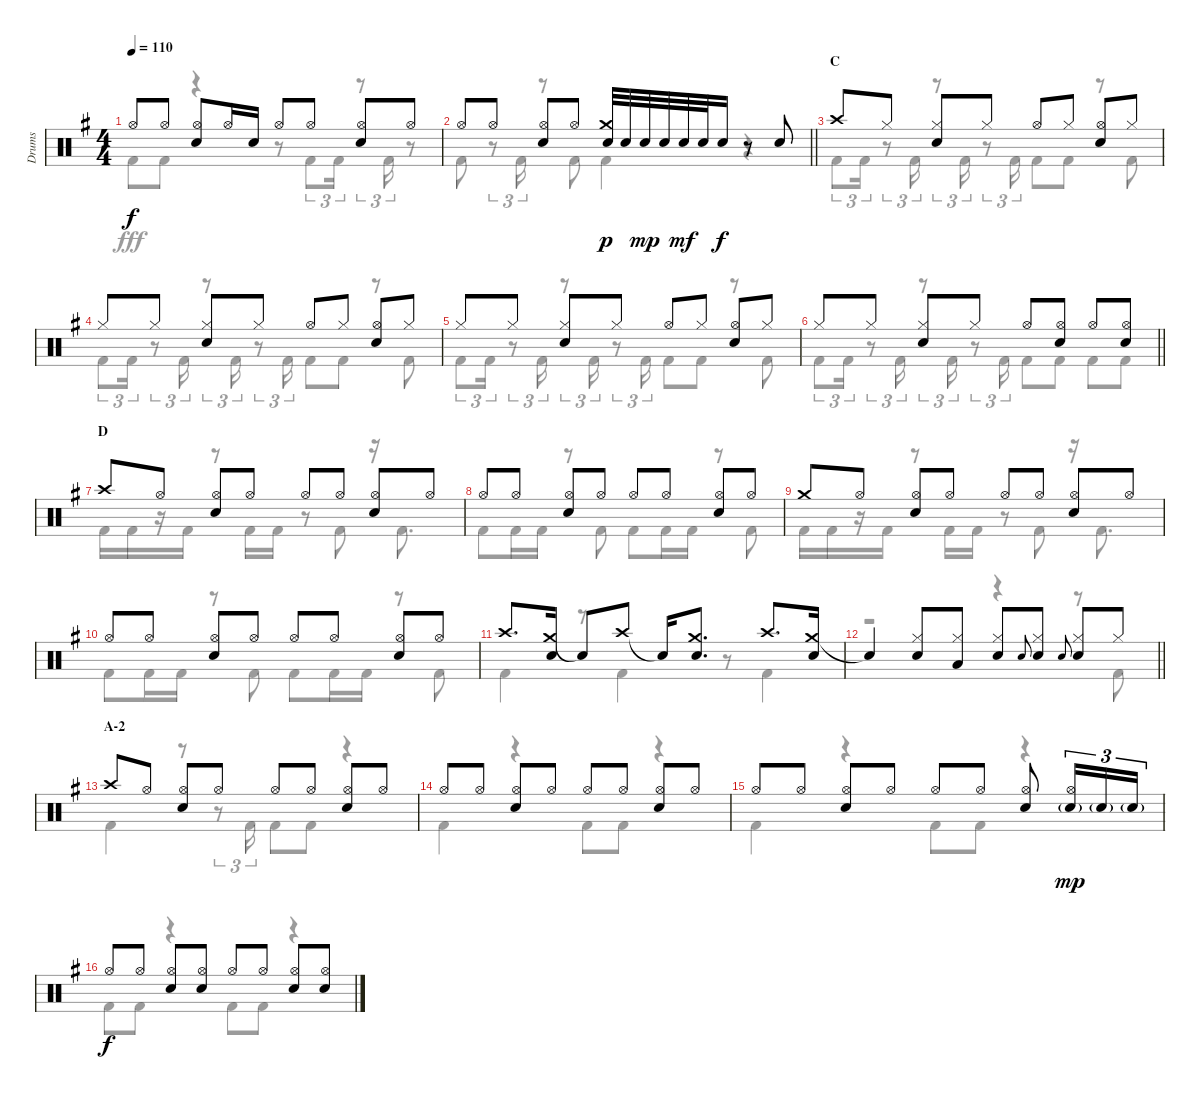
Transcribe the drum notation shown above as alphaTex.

\track ("Drums" "Drums") {instrument percussion}
\staff {score}
\articulation defaults
\voice
\ts (4 4)
\tempo 110
\clef neutral
\ks g "Hi-Hat (open)".8{dy f} "Hi-Hat (open)".8
("Hi-Hat (open)" "Snare (hit) 2").8 "Hi-Hat (open)".16 "Snare (hit) 2".16 "Hi-Hat (open)".8 "Hi-Hat (open)".8 ("Hi-Hat (open)" "Snare (hit) 2").8 "Hi-Hat (open)".8 |
\barLineRight lightlight "Hi-Hat (open)".8 "Hi-Hat (open)".8
("Hi-Hat (open)" "Snare (hit) 2").8 "Hi-Hat (open)".8 ("Crash medium (hit)" "Snare (hit) 2").32{dy p} "Snare (hit) 2".32 "Snare (hit) 2".32{dy mp} "Snare (hit) 2".32 "Snare (hit) 2".32{dy mf} "Snare (hit) 2".32 "Snare (hit) 2".16{dy f} r.8 "Snare (hit) 2".8 |
\section ("" "C")
"Crash high (hit)".8 "Hi-Hat (closed)".8 ("Hi-Hat (closed)" "Snare (hit) 2").8 "Hi-Hat (closed)".8 "Hi-Hat (open)".8 "Hi-Hat (closed)".8 ("Hi-Hat (open)" "Snare (hit) 2").8 "Hi-Hat (closed)".8 |
"Hi-Hat (closed)".8 "Hi-Hat (closed)".8 ("Hi-Hat (closed)" "Snare (hit) 2").8 "Hi-Hat (closed)".8 "Hi-Hat (open)".8 "Hi-Hat (closed)".8 ("Hi-Hat (open)" "Snare (hit) 2").8 "Hi-Hat (closed)".8 |
"Hi-Hat (closed)".8 "Hi-Hat (closed)".8 ("Hi-Hat (closed)" "Snare (hit) 2").8 "Hi-Hat (closed)".8 "Hi-Hat (open)".8 "Hi-Hat (closed)".8 ("Hi-Hat (open)" "Snare (hit) 2").8 "Hi-Hat (closed)".8 |
\barLineRight lightlight "Hi-Hat (closed)".8 "Hi-Hat (closed)".8
("Hi-Hat (closed)" "Snare (hit) 2").8 "Hi-Hat (closed)".8 "Hi-Hat (open)".8 ("Hi-Hat (open)" "Snare (hit) 2").8 "Hi-Hat (open)".8 ("Hi-Hat (open)" "Snare (hit) 2").8 |
\section ("" "D")
"Crash high (hit)".8 "Hi-Hat (open)".8 ("Hi-Hat (open)" "Snare (hit) 2").8 "Hi-Hat (open)".8 "Hi-Hat (open)".8 "Hi-Hat (open)".8 ("Hi-Hat (open)" "Snare (hit) 2").8 "Hi-Hat (open)".8 |
"Hi-Hat (open)".8 "Hi-Hat (open)".8 ("Hi-Hat (open)" "Snare (hit) 2").8 "Hi-Hat (open)".8 "Hi-Hat (open)".8 "Hi-Hat (open)".8 ("Hi-Hat (open)" "Snare (hit) 2").8 "Hi-Hat (open)".8 |
"Crash medium (hit)".8 "Hi-Hat (open)".8 ("Hi-Hat (open)" "Snare (hit) 2").8 "Hi-Hat (open)".8 "Hi-Hat (open)".8 "Hi-Hat (open)".8 ("Hi-Hat (open)" "Snare (hit) 2").8 "Hi-Hat (open)".8 |
"Hi-Hat (open)".8 "Hi-Hat (open)".8 ("Hi-Hat (open)" "Snare (hit) 2").8 "Hi-Hat (open)".8 "Hi-Hat (open)".8 "Hi-Hat (open)".8 ("Hi-Hat (open)" "Snare (hit) 2").8 "Hi-Hat (open)".8 |
"Crash high (hit)".8{d} ("Crash medium (hit)" "Snare (hit) 2").16 "Snare (hit)"{t}.8 "Crash high (hit)".8 "Snare (hit)"{t}.16 ("Crash medium (hit)" "Snare (hit) 2").8{d} "Crash high (hit)".8{d} ("Crash medium (hit)" "Snare (hit) 2").16 |
\barLineRight lightlight "Snare (hit)"{t}.4
("Hi-Hat (closed)" "Snare (hit) 2").8 ("Hi-Hat (closed)" "Low Tom (hit)").8 ("Hi-Hat (closed)" "Snare (hit) 2").8 "Snare (hit) 2".8{gr onbeat} ("Hi-Hat (closed)" "Snare (hit) 2").8 "Snare (hit) 2".8{gr onbeat} ("Hi-Hat (closed)" "Snare (hit) 2").8 "Hi-Hat (closed)".8 |
\section ("" "A-2")
"Crash high (hit)".8 "Hi-Hat (open)".8 ("Hi-Hat (open)" "Snare (hit) 2").8 "Hi-Hat (open)".8 "Hi-Hat (open)".8 "Hi-Hat (open)".8 ("Hi-Hat (open)" "Snare (hit) 2").8 "Hi-Hat (open)".8 |
"Hi-Hat (open)".8 "Hi-Hat (open)".8 ("Hi-Hat (open)" "Snare (hit) 2").8 "Hi-Hat (open)".8 "Hi-Hat (open)".8 "Hi-Hat (open)".8 ("Hi-Hat (open)" "Snare (hit) 2").8 "Hi-Hat (open)".8 |
"Hi-Hat (open)".8 "Hi-Hat (open)".8 ("Hi-Hat (open)" "Snare (hit) 2").8 "Hi-Hat (open)".8 "Hi-Hat (open)".8 "Hi-Hat (open)".8 ("Hi-Hat (open)" "Snare (hit) 2").8 ("Hi-Hat (open)" "Snare (hit) 2"{g}).16{tu (3 2) dy mp} "Snare (hit) 2"{g}.16{tu (3 2)} "Snare (hit) 2"{g}.16{tu (3 2)} |
"Hi-Hat (open)".8{dy f} "Hi-Hat (open)".8 ("Hi-Hat (open)" "Snare (hit) 2").8 ("Hi-Hat (open)" "Snare (hit) 2").8 "Hi-Hat (open)".8 "Hi-Hat (open)".8 ("Hi-Hat (open)" "Snare (hit) 2").8 ("Hi-Hat (open)" "Snare (hit) 2").8
\voice
\clef neutral
\ottava regular
\simile none
\ks g "Kick (hit) 2".8{dy fff} "Kick (hit) 2".8
r.4 r.8 "Kick (hit) 2".8{tu (3 2)} "Kick (hit) 2".16{tu (3 2)} r.8{tu (3 2)} "Kick (hit) 2".16{tu (3 2)} r.8 |
\barLineRight lightlight "Kick (hit) 2".8
r.8{tu (3 2)} "Kick (hit) 2".16{tu (3 2)} r.8 "Kick (hit) 2".8 "Kick (hit) 2".4 r.4 |
"Kick (hit) 2".8{tu (3 2)} "Kick (hit) 2".16{tu (3 2)} r.8{tu (3 2)} "Kick (hit) 2".16{tu (3 2)} r.8{tu (3 2)} "Kick (hit) 2".16{tu (3 2)} r.8{tu (3 2)} "Kick (hit) 2".16{tu (3 2)} "Kick (hit) 2".8 "Kick (hit) 2".8 r.8 "Kick (hit) 2".8 |
"Kick (hit) 2".8{tu (3 2)} "Kick (hit) 2".16{tu (3 2)} r.8{tu (3 2)} "Kick (hit) 2".16{tu (3 2)} r.8{tu (3 2)} "Kick (hit) 2".16{tu (3 2)} r.8{tu (3 2)} "Kick (hit) 2".16{tu (3 2)} "Kick (hit) 2".8 "Kick (hit) 2".8 r.8 "Kick (hit) 2".8 |
"Kick (hit) 2".8{tu (3 2)} "Kick (hit) 2".16{tu (3 2)} r.8{tu (3 2)} "Kick (hit) 2".16{tu (3 2)} r.8{tu (3 2)} "Kick (hit) 2".16{tu (3 2)} r.8{tu (3 2)} "Kick (hit) 2".16{tu (3 2)} "Kick (hit) 2".8 "Kick (hit) 2".8 r.8 "Kick (hit) 2".8 |
\barLineRight lightlight "Kick (hit) 2".8{tu (3 2)} "Kick (hit) 2".16{tu (3 2)}
r.8{tu (3 2)} "Kick (hit) 2".16{tu (3 2)} r.8{tu (3 2)} "Kick (hit) 2".16{tu (3 2)} r.8{tu (3 2)} "Kick (hit) 2".16{tu (3 2)} "Kick (hit) 2".8 "Kick (hit) 2".8 "Kick (hit) 2".8 "Kick (hit) 2".8 |
"Kick (hit) 2".16 "Kick (hit) 2".16 r.16 "Kick (hit) 2".16 r.8 "Kick (hit) 2".16 "Kick (hit) 2".16 r.8 "Kick (hit) 2".8 r.16 "Kick (hit) 2".8{d} |
"Kick (hit) 2".8 "Kick (hit) 2".16 "Kick (hit) 2".16 r.8 "Kick (hit) 2".8 "Kick (hit) 2".8 "Kick (hit) 2".16 "Kick (hit) 2".16 r.8 "Kick (hit) 2".8 |
"Kick (hit) 2".16 "Kick (hit) 2".16 r.16 "Kick (hit) 2".16 r.8 "Kick (hit) 2".16 "Kick (hit) 2".16 r.8 "Kick (hit) 2".8 r.16 "Kick (hit) 2".8{d} |
"Kick (hit) 2".8 "Kick (hit) 2".16 "Kick (hit) 2".16 r.8 "Kick (hit) 2".8 "Kick (hit) 2".8 "Kick (hit) 2".16 "Kick (hit) 2".16 r.8 "Kick (hit) 2".8 |
"Kick (hit) 2".4 r.8 "Kick (hit) 2".4 r.8 "Kick (hit) 2".4 |
\barLineRight lightlight
r.2 r.4 r.8 "Kick (hit) 2".8 |
"Kick (hit) 2".4 r.8 r.8{tu (3 2)} "Kick (hit) 2".16{tu (3 2)} "Kick (hit) 2".8 "Kick (hit) 2".8 r.4 |
"Kick (hit) 2".4 r.4 "Kick (hit) 2".8 "Kick (hit) 2".8 r.4 |
"Kick (hit) 2".4 r.4 "Kick (hit) 2".8 "Kick (hit) 2".8 r.4 |
"Kick (hit) 2".8 "Kick (hit) 2".8 r.4 "Kick (hit) 2".8 "Kick (hit) 2".8 r.4
